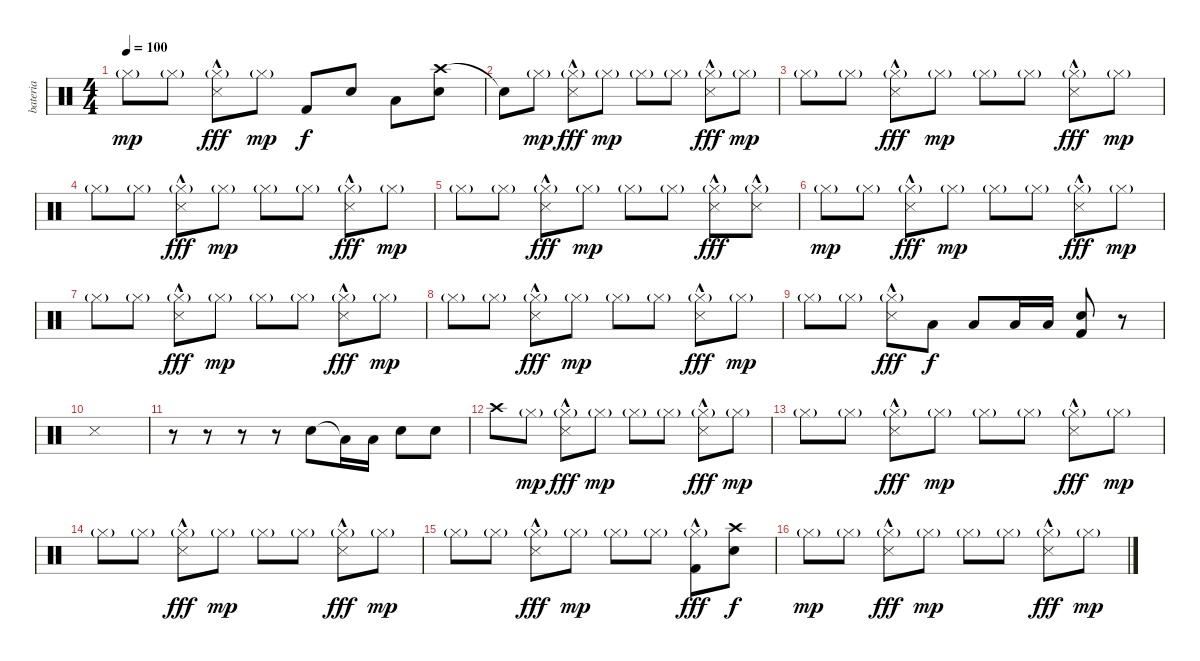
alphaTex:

\track ("bateria" "bateria") {instrument percussion}
\staff {score}
\articulation defaults
\ts (4 4)
\tempo 100
\clef neutral
\ks c "Hi-Hat (closed)"{g}.8{dy mp} "Hi-Hat (closed)"{g}.8
("Hi-Hat (closed)"{g} "Snare (side stick) 3"{hac}).8{dy fff} "Hi-Hat (closed)"{g}.8{dy mp} "Kick (hit) 2".8{dy f} "Electric Snare (hit)".8 "Low Tom (hit)".8 ("Crash high (hit)" "Electric Snare (hit)").8 |
"Snare (hit)"{t}.8 "Hi-Hat (closed)"{g}.8{dy mp} ("Hi-Hat (closed)"{g} "Snare (side stick) 3"{hac}).8{dy fff} "Hi-Hat (closed)"{g}.8{dy mp} "Hi-Hat (closed)"{g}.8 "Hi-Hat (closed)"{g}.8 ("Hi-Hat (closed)"{g} "Snare (side stick) 3"{hac}).8{dy fff} "Hi-Hat (closed)"{g}.8{dy mp} |
"Hi-Hat (closed)"{g}.8 "Hi-Hat (closed)"{g}.8 ("Hi-Hat (closed)"{g} "Snare (side stick) 3"{hac}).8{dy fff} "Hi-Hat (closed)"{g}.8{dy mp} "Hi-Hat (closed)"{g}.8 "Hi-Hat (closed)"{g}.8 ("Hi-Hat (closed)"{g} "Snare (side stick) 3"{hac}).8{dy fff} "Hi-Hat (closed)"{g}.8{dy mp} |
"Hi-Hat (closed)"{g}.8 "Hi-Hat (closed)"{g}.8 ("Hi-Hat (closed)"{g} "Snare (side stick) 3"{hac}).8{dy fff} "Hi-Hat (closed)"{g}.8{dy mp} "Hi-Hat (closed)"{g}.8 "Hi-Hat (closed)"{g}.8 ("Hi-Hat (closed)"{g} "Snare (side stick) 3"{hac}).8{dy fff} "Hi-Hat (closed)"{g}.8{dy mp} |
"Hi-Hat (closed)"{g}.8 "Hi-Hat (closed)"{g}.8 ("Hi-Hat (closed)"{g} "Snare (side stick) 3"{hac}).8{dy fff} "Hi-Hat (closed)"{g}.8{dy mp} "Hi-Hat (closed)"{g}.8 "Hi-Hat (closed)"{g}.8 ("Hi-Hat (closed)"{g} "Snare (side stick) 3"{hac}).8{dy fff} ("Hi-Hat (closed)"{g} "Snare (side stick) 3"{hac}).8 |
"Hi-Hat (closed)"{g}.8{dy mp} "Hi-Hat (closed)"{g}.8 ("Hi-Hat (closed)"{g} "Snare (side stick) 3"{hac}).8{dy fff} "Hi-Hat (closed)"{g}.8{dy mp} "Hi-Hat (closed)"{g}.8 "Hi-Hat (closed)"{g}.8 ("Hi-Hat (closed)"{g} "Snare (side stick) 3"{hac}).8{dy fff} "Hi-Hat (closed)"{g}.8{dy mp} |
"Hi-Hat (closed)"{g}.8 "Hi-Hat (closed)"{g}.8 ("Hi-Hat (closed)"{g} "Snare (side stick) 3"{hac}).8{dy fff} "Hi-Hat (closed)"{g}.8{dy mp} "Hi-Hat (closed)"{g}.8 "Hi-Hat (closed)"{g}.8 ("Hi-Hat (closed)"{g} "Snare (side stick) 3"{hac}).8{dy fff} "Hi-Hat (closed)"{g}.8{dy mp} |
"Hi-Hat (closed)"{g}.8 "Hi-Hat (closed)"{g}.8 ("Hi-Hat (closed)"{g} "Snare (side stick) 3"{hac}).8{dy fff} "Hi-Hat (closed)"{g}.8{dy mp} "Hi-Hat (closed)"{g}.8 "Hi-Hat (closed)"{g}.8 ("Hi-Hat (closed)"{g} "Snare (side stick) 3"{hac}).8{dy fff} "Hi-Hat (closed)"{g}.8{dy mp} |
"Hi-Hat (closed)"{g}.8 "Hi-Hat (closed)"{g}.8 ("Hi-Hat (closed)"{g} "Snare (side stick) 3"{hac}).8{dy fff} "Low Tom (hit)".8{dy f} "Low Tom (hit)".8 "Low Floor Tom (hit)".16 "Low Floor Tom (hit)".16 ("Electric Snare (hit)" "Kick (hit) 2").8 r.8 |
"Snare (side stick) 3".1 |
r.8 r.8 r.8 r.8 "Electric Snare (hit)".8 "Low Tom (hit)"{t}.16 "Low Tom (hit)".16 "Electric Snare (hit)".8 "Electric Snare (hit)".8 |
"Crash high (hit)".8 "Hi-Hat (closed)"{g}.8{dy mp} ("Hi-Hat (closed)"{g} "Snare (side stick) 3"{hac}).8{dy fff} "Hi-Hat (closed)"{g}.8{dy mp} "Hi-Hat (closed)"{g}.8 "Hi-Hat (closed)"{g}.8 ("Hi-Hat (closed)"{g} "Snare (side stick) 3"{hac}).8{dy fff} "Hi-Hat (closed)"{g}.8{dy mp} |
"Hi-Hat (closed)"{g}.8 "Hi-Hat (closed)"{g}.8 ("Hi-Hat (closed)"{g} "Snare (side stick) 3"{hac}).8{dy fff} "Hi-Hat (closed)"{g}.8{dy mp} "Hi-Hat (closed)"{g}.8 "Hi-Hat (closed)"{g}.8 ("Hi-Hat (closed)"{g} "Snare (side stick) 3"{hac}).8{dy fff} "Hi-Hat (closed)"{g}.8{dy mp} |
"Hi-Hat (closed)"{g}.8 "Hi-Hat (closed)"{g}.8 ("Hi-Hat (closed)"{g} "Snare (side stick) 3"{hac}).8{dy fff} "Hi-Hat (closed)"{g}.8{dy mp} "Hi-Hat (closed)"{g}.8 "Hi-Hat (closed)"{g}.8 ("Hi-Hat (closed)"{g} "Snare (side stick) 3"{hac}).8{dy fff} "Hi-Hat (closed)"{g}.8{dy mp} |
"Hi-Hat (closed)"{g}.8 "Hi-Hat (closed)"{g}.8 ("Hi-Hat (closed)"{g} "Snare (side stick) 3"{hac}).8{dy fff} "Hi-Hat (closed)"{g}.8{dy mp} "Hi-Hat (closed)"{g}.8 "Hi-Hat (closed)"{g}.8 ("Hi-Hat (closed)"{g} "Kick (hit) 2"{hac}).8{dy fff} ("Crash high (hit)" "Electric Snare (hit)").8{dy f} |
"Hi-Hat (closed)"{g}.8{dy mp} "Hi-Hat (closed)"{g}.8 ("Hi-Hat (closed)"{g} "Snare (side stick) 3"{hac}).8{dy fff} "Hi-Hat (closed)"{g}.8{dy mp} "Hi-Hat (closed)"{g}.8 "Hi-Hat (closed)"{g}.8 ("Hi-Hat (closed)"{g} "Snare (side stick) 3"{hac}).8{dy fff} "Hi-Hat (closed)"{g}.8{dy mp}
